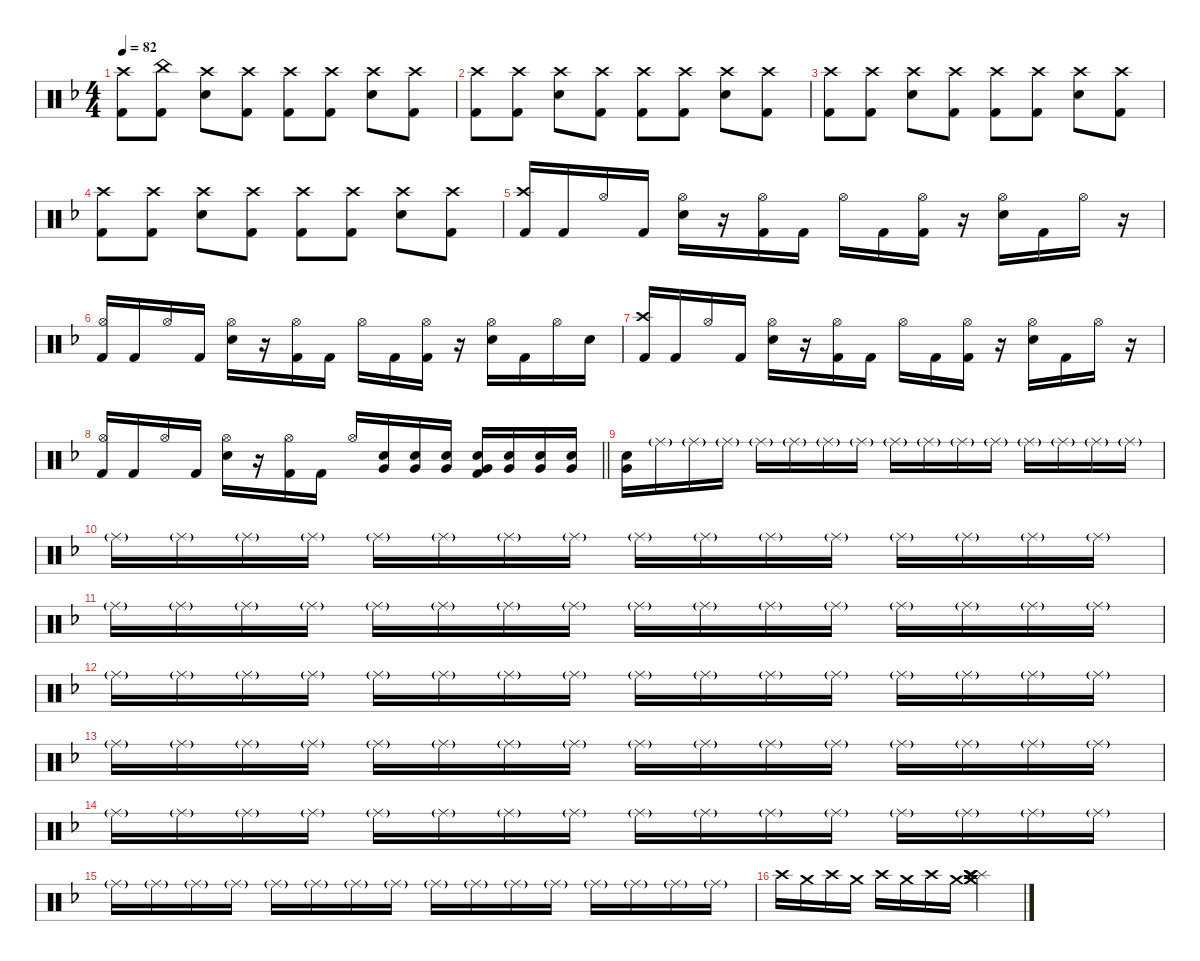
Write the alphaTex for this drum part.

\defaultSystemsLayout 4
\hideDynamics
\bracketExtendMode nobrackets
\singleTrackTrackNamePolicy hidden
\multiTrackTrackNamePolicy hidden
\firstSystemTrackNameMode fullname
\firstSystemTrackNameOrientation horizontal
\otherSystemsTrackNameOrientation horizontal
\track ("Drums" "drm.") {defaultSystemsLayout 4 instrument percussion}
\staff {score}
\articulation defaults
\ts (4 4)
\tempo 82
\clef neutral
\ks dminor
("Crash high (hit)"{acc forcenatural} "Kick (hit) 2"{acc forcenatural}).8{dy f beam Down} ("China (hit)"{acc forcenatural} "Kick (hit) 2"{acc forcenatural}).8{beam Down} ("Crash high (hit)"{acc forcenatural} "Snare (hit) 2"{acc forcenatural}).8{beam Down} ("Crash high (hit)"{acc forcenatural} "Kick (hit) 2"{acc forcenatural}).8{beam Down} ("Crash high (hit)"{acc forcenatural} "Kick (hit) 2"{acc forcenatural}).8{beam Down} ("Crash high (hit)"{acc forcenatural} "Kick (hit) 2"{acc forcenatural}).8{beam Down} ("Crash high (hit)"{acc forcenatural} "Snare (hit) 2"{acc forcenatural}).8{beam Down} ("Crash high (hit)"{acc forcenatural} "Kick (hit) 2"{acc forcenatural}).8{beam Down} |
("Crash high (hit)"{acc forcenatural} "Kick (hit) 2"{acc forcenatural}).8{beam Down} ("Crash high (hit)"{acc forcenatural} "Kick (hit) 2"{acc forcenatural}).8{beam Down} ("Crash high (hit)"{acc forcenatural} "Snare (hit) 2"{acc forcenatural}).8{beam Down} ("Crash high (hit)"{acc forcenatural} "Kick (hit) 2"{acc forcenatural}).8{beam Down} ("Crash high (hit)"{acc forcenatural} "Kick (hit) 2"{acc forcenatural}).8{beam Down} ("Crash high (hit)"{acc forcenatural} "Kick (hit) 2"{acc forcenatural}).8{beam Down} ("Crash high (hit)"{acc forcenatural} "Snare (hit) 2"{acc forcenatural}).8{beam Down} ("Crash high (hit)"{acc forcenatural} "Kick (hit) 2"{acc forcenatural}).8{beam Down} |
("Crash high (hit)"{acc forcenatural} "Kick (hit) 2"{acc forcenatural}).8{beam Down} ("Crash high (hit)"{acc forcenatural} "Kick (hit) 2"{acc forcenatural}).8{beam Down} ("Crash high (hit)"{acc forcenatural} "Snare (hit) 2"{acc forcenatural}).8{beam Down} ("Crash high (hit)"{acc forcenatural} "Kick (hit) 2"{acc forcenatural}).8{beam Down} ("Crash high (hit)"{acc forcenatural} "Kick (hit) 2"{acc forcenatural}).8{beam Down} ("Crash high (hit)"{acc forcenatural} "Kick (hit) 2"{acc forcenatural}).8{beam Down} ("Crash high (hit)"{acc forcenatural} "Snare (hit) 2"{acc forcenatural}).8{beam Down} ("Crash high (hit)"{acc forcenatural} "Kick (hit) 2"{acc forcenatural}).8{beam Down} |
("Crash high (hit)"{acc forcenatural} "Kick (hit) 2"{acc forcenatural}).8{beam Down} ("Crash high (hit)"{acc forcenatural} "Kick (hit) 2"{acc forcenatural}).8{beam Down} ("Crash high (hit)"{acc forcenatural} "Snare (hit) 2"{acc forcenatural}).8{beam Down} ("Crash high (hit)"{acc forcenatural} "Kick (hit) 2"{acc forcenatural}).8{beam Down} ("Crash high (hit)"{acc forcenatural} "Kick (hit) 2"{acc forcenatural}).8{beam Down} ("Crash high (hit)"{acc forcenatural} "Kick (hit) 2"{acc forcenatural}).8{beam Down} ("Crash high (hit)"{acc forcenatural} "Snare (hit) 2"{acc forcenatural}).8{beam Down} ("Crash high (hit)"{acc forcenatural} "Kick (hit) 2"{acc forcenatural}).8{beam Down} |
("Crash high (hit)"{acc forcenatural} "Kick (hit) 2"{acc forcenatural}).16{beam Up} "Kick (hit) 2"{acc forcenatural}.16{beam Up} "Hi-Hat (open)"{acc forcenatural}.16{dy mp beam Up} "Kick (hit) 2"{acc forcenatural}.16{dy f beam Up} ("Hi-Hat (open)"{acc forcenatural} "Snare (hit) 2"{acc forcenatural}).16{dy mp beam Down} r.16{beam Down} ("Hi-Hat (open)"{acc forcenatural} "Kick (hit) 2"{acc forcenatural}).16{beam Down} "Kick (hit) 2"{acc forcenatural}.16{dy f beam Down} "Hi-Hat (open)"{acc forcenatural}.16{dy mp beam Down} "Kick (hit) 2"{acc forcenatural}.16{dy f beam Down} ("Hi-Hat (open)"{acc forcenatural} "Kick (hit) 2"{acc forcenatural}).16{dy mp beam Down} r.16{beam Down} ("Hi-Hat (open)"{acc forcenatural} "Snare (hit) 2"{acc forcenatural}).16{beam Down} "Kick (hit) 2"{acc forcenatural}.16{dy f beam Down} "Hi-Hat (open)"{acc forcenatural}.16{dy mp beam Down} r.16{beam Down} |
("Hi-Hat (open)"{acc forcenatural} "Kick (hit) 2"{acc forcenatural}).16{beam Up} "Kick (hit) 2"{acc forcenatural}.16{dy f beam Up} "Hi-Hat (open)"{acc forcenatural}.16{dy mp beam Up} "Kick (hit) 2"{acc forcenatural}.16{dy f beam Up} ("Hi-Hat (open)"{acc forcenatural} "Snare (hit) 2"{acc forcenatural}).16{dy mp beam Down} r.16{beam Down} ("Hi-Hat (open)"{acc forcenatural} "Kick (hit) 2"{acc forcenatural}).16{beam Down} "Kick (hit) 2"{acc forcenatural}.16{dy f beam Down} "Hi-Hat (open)"{acc forcenatural}.16{dy mp beam Down} "Kick (hit) 2"{acc forcenatural}.16{dy f beam Down} ("Hi-Hat (open)"{acc forcenatural} "Kick (hit) 2"{acc forcenatural}).16{dy mp beam Down} r.16{beam Down} ("Hi-Hat (open)"{acc forcenatural} "Snare (hit) 2"{acc forcenatural}).16{beam Down} "Kick (hit) 2"{acc forcenatural}.16{dy f beam Down} "Hi-Hat (open)"{acc forcenatural}.16{dy mp beam Down} "Snare (hit) 2"{acc forcenatural}.16{dy f beam Down} |
("Crash high (hit)"{acc forcenatural} "Kick (hit) 2"{acc forcenatural}).16{beam Up} "Kick (hit) 2"{acc forcenatural}.16{beam Up} "Hi-Hat (open)"{acc forcenatural}.16{dy mp beam Up} "Kick (hit) 2"{acc forcenatural}.16{dy f beam Up} ("Hi-Hat (open)"{acc forcenatural} "Snare (hit) 2"{acc forcenatural}).16{dy mp beam Down} r.16{beam Down} ("Hi-Hat (open)"{acc forcenatural} "Kick (hit) 2"{acc forcenatural}).16{beam Down} "Kick (hit) 2"{acc forcenatural}.16{dy f beam Down} "Hi-Hat (open)"{acc forcenatural}.16{dy mp beam Down} "Kick (hit) 2"{acc forcenatural}.16{dy f beam Down} ("Hi-Hat (open)"{acc forcenatural} "Kick (hit) 2"{acc forcenatural}).16{dy mp beam Down} r.16{beam Down} ("Hi-Hat (open)"{acc forcenatural} "Snare (hit) 2"{acc forcenatural}).16{beam Down} "Kick (hit) 2"{acc forcenatural}.16{dy f beam Down} "Hi-Hat (open)"{acc forcenatural}.16{dy mp beam Down} r.16{beam Down} |
\barLineRight lightlight
("Hi-Hat (open)"{acc forcenatural} "Kick (hit) 2"{acc forcenatural}).16{beam Up} "Kick (hit) 2"{acc forcenatural}.16{dy f beam Up} "Hi-Hat (open)"{acc forcenatural}.16{dy mp beam Up} "Kick (hit) 2"{acc forcenatural}.16{dy f beam Up} ("Hi-Hat (open)"{acc forcenatural} "Snare (hit) 2"{acc forcenatural}).16{dy mp beam Down} r.16{beam Down} ("Hi-Hat (open)"{acc forcenatural} "Kick (hit) 2"{acc forcenatural}).16{beam Down} "Kick (hit) 2"{acc forcenatural}.16{dy f beam Down} "Hi-Hat (open)"{acc forcenatural}.16{dy mp beam Up} ("Snare (hit) 2"{acc forcenatural} "Very Low Tom (hit)"{acc forcenatural}).16{dy pp beam Up} ("Snare (hit) 2"{acc forcenatural} "Very Low Tom (hit)"{acc forcenatural}).16{dy p beam Up} ("Snare (hit) 2"{acc forcenatural} "Very Low Tom (hit)"{acc forcenatural}).16{dy mp beam Up} ("Snare (hit) 2"{acc forcenatural} "Very Low Tom (hit)"{acc forcenatural} "Kick (hit) 2"{acc forcenatural}).16{dy mf beam Up} ("Snare (hit) 2"{acc forcenatural} "Very Low Tom (hit)"{acc forcenatural}).16{dy f beam Up} ("Snare (hit) 2"{acc forcenatural} "Very Low Tom (hit)"{acc forcenatural}).16{dy ff beam Up} ("Snare (hit) 2"{acc forcenatural} "Very Low Tom (hit)"{acc forcenatural}).16{dy fff beam Up} |
("Snare (hit) 2"{acc forcenatural} "Very Low Tom (hit)"{acc forcenatural}).16{dy f beam Down} "Ride (middle)"{g acc forcenatural}.16{dy mf beam Down} "Ride (middle)"{g acc forcenatural}.16{beam Down} "Ride (middle)"{g acc forcenatural}.16{beam Down} "Ride (middle)"{g acc forcenatural}.16{beam Down} "Ride (middle)"{g acc forcenatural}.16{beam Down} "Ride (middle)"{g acc forcenatural}.16{beam Down} "Ride (middle)"{g acc forcenatural}.16{beam Down} "Ride (middle)"{g acc forcenatural}.16{beam Down} "Ride (middle)"{g acc forcenatural}.16{beam Down} "Ride (middle)"{g acc forcenatural}.16{beam Down} "Ride (middle)"{g acc forcenatural}.16{beam Down} "Ride (middle)"{g acc forcenatural}.16{beam Down} "Ride (middle)"{g acc forcenatural}.16{beam Down} "Ride (middle)"{g acc forcenatural}.16{beam Down} "Ride (middle)"{g acc forcenatural}.16{beam Down} |
"Ride (middle)"{g acc forcenatural}.16{beam Down} "Ride (middle)"{g acc forcenatural}.16{beam Down} "Ride (middle)"{g acc forcenatural}.16{beam Down} "Ride (middle)"{g acc forcenatural}.16{beam Down} "Ride (middle)"{g acc forcenatural}.16{beam Down} "Ride (middle)"{g acc forcenatural}.16{beam Down} "Ride (middle)"{g acc forcenatural}.16{beam Down} "Ride (middle)"{g acc forcenatural}.16{beam Down} "Ride (middle)"{g acc forcenatural}.16{beam Down} "Ride (middle)"{g acc forcenatural}.16{beam Down} "Ride (middle)"{g acc forcenatural}.16{beam Down} "Ride (middle)"{g acc forcenatural}.16{beam Down} "Ride (middle)"{g acc forcenatural}.16{beam Down} "Ride (middle)"{g acc forcenatural}.16{beam Down} "Ride (middle)"{g acc forcenatural}.16{beam Down} "Ride (middle)"{g acc forcenatural}.16{beam Down} |
"Ride (middle)"{g acc forcenatural}.16{beam Down} "Ride (middle)"{g acc forcenatural}.16{beam Down} "Ride (middle)"{g acc forcenatural}.16{beam Down} "Ride (middle)"{g acc forcenatural}.16{beam Down} "Ride (middle)"{g acc forcenatural}.16{beam Down} "Ride (middle)"{g acc forcenatural}.16{beam Down} "Ride (middle)"{g acc forcenatural}.16{beam Down} "Ride (middle)"{g acc forcenatural}.16{beam Down} "Ride (middle)"{g acc forcenatural}.16{beam Down} "Ride (middle)"{g acc forcenatural}.16{beam Down} "Ride (middle)"{g acc forcenatural}.16{beam Down} "Ride (middle)"{g acc forcenatural}.16{beam Down} "Ride (middle)"{g acc forcenatural}.16{beam Down} "Ride (middle)"{g acc forcenatural}.16{beam Down} "Ride (middle)"{g acc forcenatural}.16{beam Down} "Ride (middle)"{g acc forcenatural}.16{beam Down} |
"Ride (middle)"{g acc forcenatural}.16{beam Down} "Ride (middle)"{g acc forcenatural}.16{beam Down} "Ride (middle)"{g acc forcenatural}.16{beam Down} "Ride (middle)"{g acc forcenatural}.16{beam Down} "Ride (middle)"{g acc forcenatural}.16{beam Down} "Ride (middle)"{g acc forcenatural}.16{beam Down} "Ride (middle)"{g acc forcenatural}.16{beam Down} "Ride (middle)"{g acc forcenatural}.16{beam Down} "Ride (middle)"{g acc forcenatural}.16{beam Down} "Ride (middle)"{g acc forcenatural}.16{beam Down} "Ride (middle)"{g acc forcenatural}.16{beam Down} "Ride (middle)"{g acc forcenatural}.16{beam Down} "Ride (middle)"{g acc forcenatural}.16{beam Down} "Ride (middle)"{g acc forcenatural}.16{beam Down} "Ride (middle)"{g acc forcenatural}.16{beam Down} "Ride (middle)"{g acc forcenatural}.16{beam Down} |
"Ride (middle)"{g acc forcenatural}.16{beam Down} "Ride (middle)"{g acc forcenatural}.16{beam Down} "Ride (middle)"{g acc forcenatural}.16{beam Down} "Ride (middle)"{g acc forcenatural}.16{beam Down} "Ride (middle)"{g acc forcenatural}.16{beam Down} "Ride (middle)"{g acc forcenatural}.16{beam Down} "Ride (middle)"{g acc forcenatural}.16{beam Down} "Ride (middle)"{g acc forcenatural}.16{beam Down} "Ride (middle)"{g acc forcenatural}.16{beam Down} "Ride (middle)"{g acc forcenatural}.16{beam Down} "Ride (middle)"{g acc forcenatural}.16{beam Down} "Ride (middle)"{g acc forcenatural}.16{beam Down} "Ride (middle)"{g acc forcenatural}.16{beam Down} "Ride (middle)"{g acc forcenatural}.16{beam Down} "Ride (middle)"{g acc forcenatural}.16{beam Down} "Ride (middle)"{g acc forcenatural}.16{beam Down} |
"Ride (middle)"{g acc forcenatural}.16{beam Down} "Ride (middle)"{g acc forcenatural}.16{beam Down} "Ride (middle)"{g acc forcenatural}.16{beam Down} "Ride (middle)"{g acc forcenatural}.16{beam Down} "Ride (middle)"{g acc forcenatural}.16{beam Down} "Ride (middle)"{g acc forcenatural}.16{beam Down} "Ride (middle)"{g acc forcenatural}.16{beam Down} "Ride (middle)"{g acc forcenatural}.16{beam Down} "Ride (middle)"{g acc forcenatural}.16{beam Down} "Ride (middle)"{g acc forcenatural}.16{beam Down} "Ride (middle)"{g acc forcenatural}.16{beam Down} "Ride (middle)"{g acc forcenatural}.16{beam Down} "Ride (middle)"{g acc forcenatural}.16{beam Down} "Ride (middle)"{g acc forcenatural}.16{beam Down} "Ride (middle)"{g acc forcenatural}.16{beam Down} "Ride (middle)"{g acc forcenatural}.16{beam Down} |
"Ride (middle)"{g acc forcenatural}.16{beam Down} "Ride (middle)"{g acc forcenatural}.16{beam Down} "Ride (middle)"{g acc forcenatural}.16{beam Down} "Ride (middle)"{g acc forcenatural}.16{beam Down} "Ride (middle)"{g acc forcenatural}.16{beam Down} "Ride (middle)"{g acc forcenatural}.16{beam Down} "Ride (middle)"{g acc forcenatural}.16{beam Down} "Ride (middle)"{g acc forcenatural}.16{beam Down} "Ride (middle)"{g acc forcenatural}.16{beam Down} "Ride (middle)"{g acc forcenatural}.16{beam Down} "Ride (middle)"{g acc forcenatural}.16{beam Down} "Ride (middle)"{g acc forcenatural}.16{beam Down} "Ride (middle)"{g acc forcenatural}.16{beam Down} "Ride (middle)"{g acc forcenatural}.16{beam Down} "Ride (middle)"{g acc forcenatural}.16{beam Down} "Ride (middle)"{g acc forcenatural}.16{beam Down} |
"Crash high (hit)"{acc forcenatural}.16{dy ppp beam Down} "Crash medium (hit)"{acc forcenatural}.16{dy pp beam Down} "Crash high (hit)"{acc forcenatural}.16{dy p beam Down} "Crash medium (hit)"{acc forcenatural}.16{dy mp beam Down} "Crash high (hit)"{acc forcenatural}.16{dy mf beam Down} "Crash medium (hit)"{acc forcenatural}.16{dy f beam Down} "Crash high (hit)"{acc forcenatural}.16{dy ff beam Down} "Crash medium (hit)"{acc forcenatural}.16{dy fff beam Down} ("Crash medium (hit)"{acc forcenatural} "Splash (hit)"{acc forcenatural} "Crash high (hit)"{acc forcenatural} "Crash medium (hit)"{acc forcenatural} "Splash (hit)"{acc forcenatural} "Crash high (hit)"{acc forcenatural}).2{beam Down}
